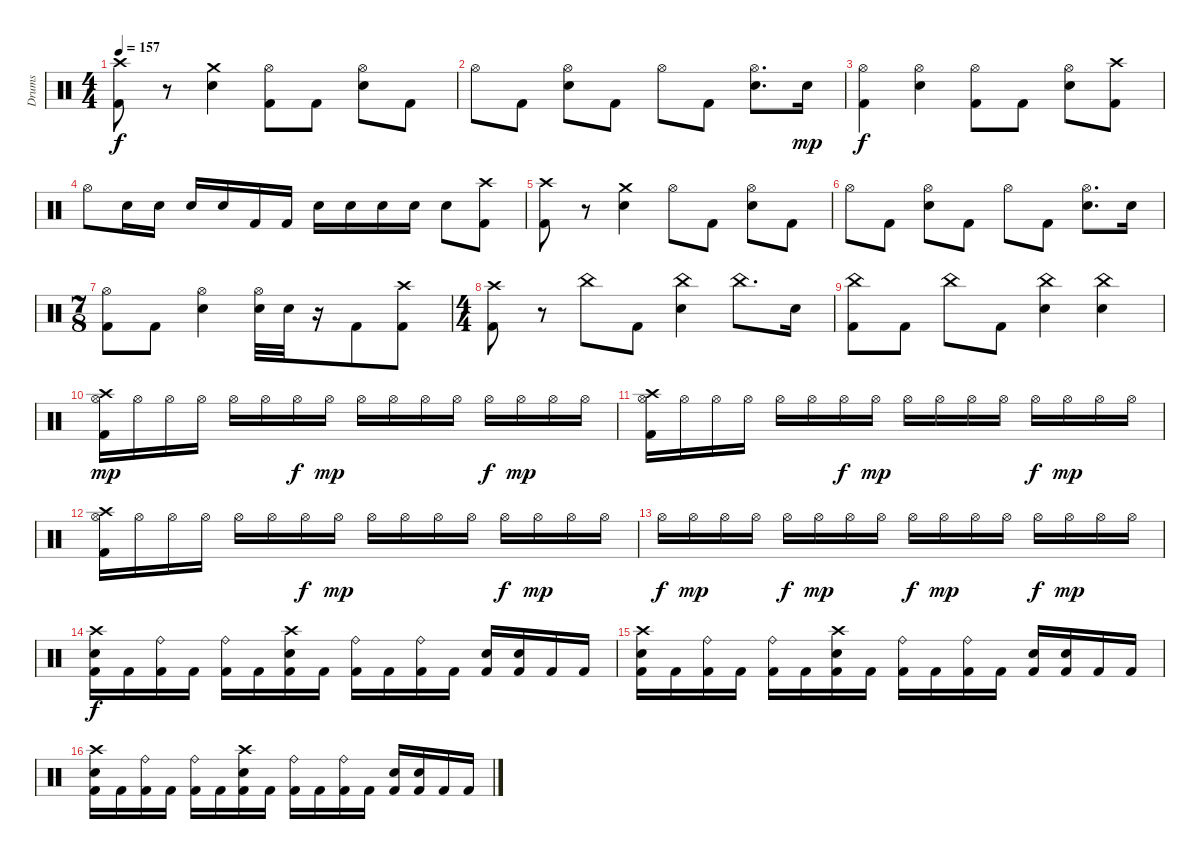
\track ("Drums" "Drums") {instrument percussion}
\staff {score}
\articulation defaults
\ts (4 4)
\tempo 157
\clef neutral
\ks c
("Kick (hit) 2" "Crash high (hit)").8{dy f} r.8 ("Electric Snare (hit)" "Crash medium (hit)").4 ("Hi-Hat (open)" "Kick (hit) 2").8 "Kick (hit) 2".8 ("Electric Snare (hit)" "Hi-Hat (open)").8 "Kick (hit) 2".8 |
"Hi-Hat (open)".8 "Kick (hit) 2".8 ("Hi-Hat (open)" "Electric Snare (hit)").8 "Kick (hit) 2".8 "Hi-Hat (open)".8 "Kick (hit) 2".8 ("Hi-Hat (open)" "Electric Snare (hit)").8{d} "Electric Snare (hit)".16{dy mp} |
("Kick (hit) 2" "Hi-Hat (open)").4{dy f} ("Electric Snare (hit)" "Hi-Hat (open)").4 ("Kick (hit) 2" "Hi-Hat (open)").8 "Kick (hit) 2".8 ("Electric Snare (hit)" "Hi-Hat (open)").8 ("Crash high (hit)" "Kick (hit) 2").8 |
"Hi-Hat (open)".8 "Electric Snare (hit)".16 "Electric Snare (hit)".16 "Electric Snare (hit)".16 "Electric Snare (hit)".16 "Kick (hit) 2".16 "Kick (hit) 2".16 "Electric Snare (hit)".16 "Electric Snare (hit)".16 "Electric Snare (hit)".16 "Electric Snare (hit)".16 "Electric Snare (hit)".8 ("Kick (hit) 2" "Crash high (hit)").8 |
("Crash high (hit)" "Kick (hit) 2").8 r.8 ("Electric Snare (hit)" "Crash medium (hit)").4 "Hi-Hat (open)".8 "Kick (hit) 2".8 ("Electric Snare (hit)" "Hi-Hat (open)").8 "Kick (hit) 2".8 |
"Hi-Hat (open)".8 "Kick (hit) 2".8 ("Hi-Hat (open)" "Electric Snare (hit)").8 "Kick (hit) 2".8 "Hi-Hat (open)".8 "Kick (hit) 2".8 ("Hi-Hat (open)" "Electric Snare (hit)").8{d} "Electric Snare (hit)".16 |
\ts (7 8)
("Kick (hit) 2" "Hi-Hat (open)").8 "Kick (hit) 2".8 ("Electric Snare (hit)" "Hi-Hat (open)").4 ("Hi-Hat (open)" "Electric Snare (hit)").32 "Electric Snare (hit)".32 r.16 "Kick (hit) 2".8 ("Crash high (hit)" "Kick (hit) 2").8 |
\ts (4 4)
("Crash high (hit)" "Kick (hit) 2").8 r.8 "China (hit)".8 "Kick (hit) 2".8 ("China (hit)" "Electric Snare (hit)").4 "China (hit)".8{d} "Electric Snare (hit)".16 |
("Kick (hit) 2" "China (hit)").8 "Kick (hit) 2".8 "China (hit)".8 "Kick (hit) 2".8 ("China (hit)" "Electric Snare (hit)").4 ("China (hit)" "Electric Snare (hit)").4 |
("Crash high (hit)" "Kick (hit) 2" "Hi-Hat (open)").16{dy mp} "Hi-Hat (open)".16 "Hi-Hat (open)".16 "Hi-Hat (open)".16 "Hi-Hat (open)".16 "Hi-Hat (open)".16 "Hi-Hat (open)".16{dy f} "Hi-Hat (open)".16{dy mp} "Hi-Hat (open)".16 "Hi-Hat (open)".16 "Hi-Hat (open)".16 "Hi-Hat (open)".16 "Hi-Hat (open)".16{dy f} "Hi-Hat (open)".16{dy mp} "Hi-Hat (open)".16 "Hi-Hat (open)".16 |
("Crash high (hit)" "Kick (hit) 2" "Hi-Hat (open)").16 "Hi-Hat (open)".16 "Hi-Hat (open)".16 "Hi-Hat (open)".16 "Hi-Hat (open)".16 "Hi-Hat (open)".16 "Hi-Hat (open)".16{dy f} "Hi-Hat (open)".16{dy mp} "Hi-Hat (open)".16 "Hi-Hat (open)".16 "Hi-Hat (open)".16 "Hi-Hat (open)".16 "Hi-Hat (open)".16{dy f} "Hi-Hat (open)".16{dy mp} "Hi-Hat (open)".16 "Hi-Hat (open)".16 |
("Hi-Hat (open)" "Crash high (hit)" "Kick (hit) 2").16 "Hi-Hat (open)".16 "Hi-Hat (open)".16 "Hi-Hat (open)".16 "Hi-Hat (open)".16 "Hi-Hat (open)".16 "Hi-Hat (open)".16{dy f} "Hi-Hat (open)".16{dy mp} "Hi-Hat (open)".16 "Hi-Hat (open)".16 "Hi-Hat (open)".16 "Hi-Hat (open)".16 "Hi-Hat (open)".16{dy f} "Hi-Hat (open)".16{dy mp} "Hi-Hat (open)".16 "Hi-Hat (open)".16 |
"Hi-Hat (open)".16{dy f} "Hi-Hat (open)".16{dy mp} "Hi-Hat (open)".16 "Hi-Hat (open)".16 "Hi-Hat (open)".16{dy f} "Hi-Hat (open)".16{dy mp} "Hi-Hat (open)".16 "Hi-Hat (open)".16 "Hi-Hat (open)".16{dy f} "Hi-Hat (open)".16{dy mp} "Hi-Hat (open)".16 "Hi-Hat (open)".16 "Hi-Hat (open)".16{dy f} "Hi-Hat (open)".16{dy mp} "Hi-Hat (open)".16 "Hi-Hat (open)".16 |
("Kick (hit) 2" "Electric Snare (hit)" "Crash high (hit)").16{dy f} "Kick (hit) 2".16 ("Kick (hit) 2" "Ride (bell)").16 "Kick (hit) 2".16 ("Kick (hit) 2" "Ride (bell)").16 "Kick (hit) 2".16 ("Kick (hit) 2" "Electric Snare (hit)" "Crash high (hit)").16 "Kick (hit) 2".16 ("Kick (hit) 2" "Ride (bell)").16 "Kick (hit) 2".16 ("Kick (hit) 2" "Ride (bell)").16 "Kick (hit) 2".16 ("Kick (hit) 2" "Electric Snare (hit)").16 ("Kick (hit) 2" "Electric Snare (hit)").16 "Kick (hit) 2".16 "Kick (hit) 2".16 |
("Kick (hit) 2" "Electric Snare (hit)" "Crash high (hit)").16 "Kick (hit) 2".16 ("Kick (hit) 2" "Ride (bell)").16 "Kick (hit) 2".16 ("Kick (hit) 2" "Ride (bell)").16 "Kick (hit) 2".16 ("Kick (hit) 2" "Electric Snare (hit)" "Crash high (hit)").16 "Kick (hit) 2".16 ("Kick (hit) 2" "Ride (bell)").16 "Kick (hit) 2".16 ("Kick (hit) 2" "Ride (bell)").16 "Kick (hit) 2".16 ("Kick (hit) 2" "Electric Snare (hit)").16 ("Kick (hit) 2" "Electric Snare (hit)").16 "Kick (hit) 2".16 "Kick (hit) 2".16 |
("Kick (hit) 2" "Electric Snare (hit)" "Crash high (hit)").16 "Kick (hit) 2".16 ("Kick (hit) 2" "Ride (bell)").16 "Kick (hit) 2".16 ("Kick (hit) 2" "Ride (bell)").16 "Kick (hit) 2".16 ("Kick (hit) 2" "Electric Snare (hit)" "Crash high (hit)").16 "Kick (hit) 2".16 ("Kick (hit) 2" "Ride (bell)").16 "Kick (hit) 2".16 ("Kick (hit) 2" "Ride (bell)").16 "Kick (hit) 2".16 ("Kick (hit) 2" "Electric Snare (hit)").16 ("Kick (hit) 2" "Electric Snare (hit)").16 "Kick (hit) 2".16 "Kick (hit) 2".16
